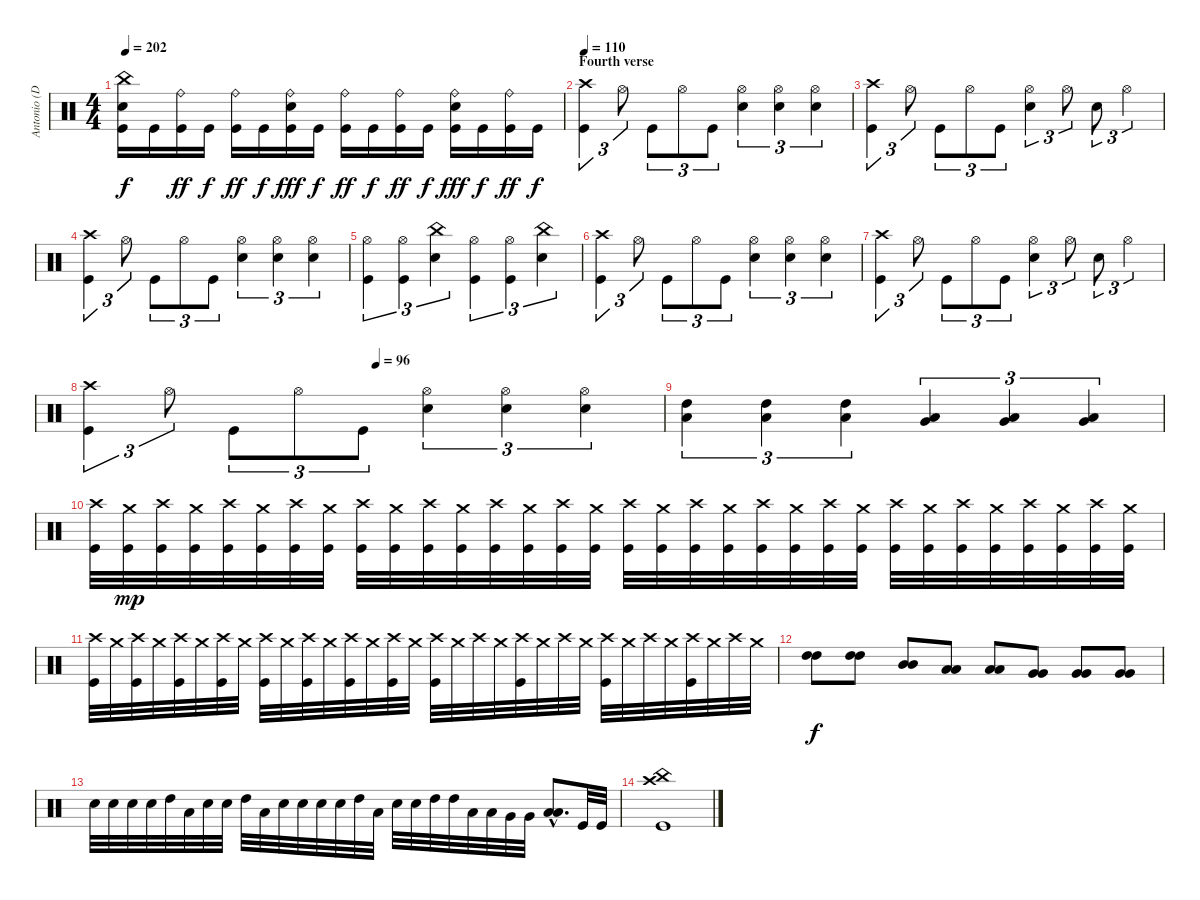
\track ("Antonio (Drums)" "Antonio (D") {instrument percussion}
\staff {score}
\articulation defaults
\ts (4 4)
\tempo 202
\clef neutral
\ks c
("China (hit)" "Electric Snare (hit)" "Kick (hit)").16{dy f} "Kick (hit)".16 ("Ride (bell)" "Kick (hit)").16{dy ff} "Kick (hit)".16{dy f} ("Ride (bell)" "Kick (hit)").16{dy ff} "Kick (hit)".16{dy f} ("Ride (bell)" "Electric Snare (hit)" "Kick (hit)").16{dy fff} "Kick (hit)".16{dy f} ("Ride (bell)" "Kick (hit)").16{dy ff} "Kick (hit)".16{dy f} ("Ride (bell)" "Kick (hit)").16{dy ff} "Kick (hit)".16{dy f} ("Ride (bell)" "Electric Snare (hit)" "Kick (hit)").16{dy fff} "Kick (hit)".16{dy f} ("Ride (bell)" "Kick (hit)").16{dy ff} "Kick (hit)".16{dy f} |
\section ("" "Fourth verse")
\tempo 110
("Crash high (hit)" "Kick (hit)").4{tu (3 2)} "Hi-Hat (open)".8{tu (3 2)} "Kick (hit)".8{tu (3 2)} "Hi-Hat (open)".8{tu (3 2)} "Kick (hit)".8{tu (3 2)} ("Hi-Hat (open)" "Electric Snare (hit)").4{tu (3 2)} ("Hi-Hat (open)" "Electric Snare (hit)").4{tu (3 2)} ("Hi-Hat (open)" "Electric Snare (hit)").4{tu (3 2)} |
("Crash high (hit)" "Kick (hit)").4{tu (3 2)} "Hi-Hat (open)".8{tu (3 2)} "Kick (hit)".8{tu (3 2)} "Hi-Hat (open)".8{tu (3 2)} "Kick (hit)".8{tu (3 2)} ("Hi-Hat (open)" "Electric Snare (hit)").4{tu (3 2)} "Hi-Hat (open)".8{tu (3 2)} "Electric Snare (hit)".8{tu (3 2)} "Hi-Hat (open)".4{tu (3 2)} |
("Crash high (hit)" "Kick (hit)").4{tu (3 2)} "Hi-Hat (open)".8{tu (3 2)} "Kick (hit)".8{tu (3 2)} "Hi-Hat (open)".8{tu (3 2)} "Kick (hit)".8{tu (3 2)} ("Hi-Hat (open)" "Electric Snare (hit)").4{tu (3 2)} ("Hi-Hat (open)" "Electric Snare (hit)").4{tu (3 2)} ("Hi-Hat (open)" "Electric Snare (hit)").4{tu (3 2)} |
("Hi-Hat (open)" "Kick (hit)").4{tu (3 2)} ("Hi-Hat (open)" "Kick (hit)").4{tu (3 2)} ("China (hit)" "Electric Snare (hit)").4{tu (3 2)} ("Hi-Hat (open)" "Kick (hit)").4{tu (3 2)} ("Hi-Hat (open)" "Kick (hit)").4{tu (3 2)} ("China (hit)" "Electric Snare (hit)").4{tu (3 2)} |
("Crash high (hit)" "Kick (hit)").4{tu (3 2)} "Hi-Hat (open)".8{tu (3 2)} "Kick (hit)".8{tu (3 2)} "Hi-Hat (open)".8{tu (3 2)} "Kick (hit)".8{tu (3 2)} ("Hi-Hat (open)" "Electric Snare (hit)").4{tu (3 2)} ("Hi-Hat (open)" "Electric Snare (hit)").4{tu (3 2)} ("Hi-Hat (open)" "Electric Snare (hit)").4{tu (3 2)} |
("Crash high (hit)" "Kick (hit)").4{tu (3 2)} "Hi-Hat (open)".8{tu (3 2)} "Kick (hit)".8{tu (3 2)} "Hi-Hat (open)".8{tu (3 2)} "Kick (hit)".8{tu (3 2)} ("Hi-Hat (open)" "Electric Snare (hit)").4{tu (3 2)} "Hi-Hat (open)".8{tu (3 2)} "Electric Snare (hit)".8{tu (3 2)} "Hi-Hat (open)".4{tu (3 2)} |
\tempo (96 0.5)
("Crash high (hit)" "Kick (hit)").4{tu (3 2)} "Hi-Hat (open)".8{tu (3 2)} "Kick (hit)".8{tu (3 2)} "Hi-Hat (open)".8{tu (3 2)} "Kick (hit)".8{tu (3 2)} ("Hi-Hat (open)" "Electric Snare (hit)").4{tu (3 2)} ("Hi-Hat (open)" "Electric Snare (hit)").4{tu (3 2)} ("Hi-Hat (open)" "Electric Snare (hit)").4{tu (3 2)} |
("High Tom (hit)" "Low Tom (hit)").4{tu (3 2) bu 120} ("High Tom (hit)" "Low Tom (hit)").4{tu (3 2) bu 120} ("High Tom (hit)" "Low Tom (hit)").4{tu (3 2) bu 120} ("Low Tom (hit)" "Very Low Tom (hit)").4{tu (3 2) bu 120} ("Low Tom (hit)" "Very Low Tom (hit)").4{tu (3 2) bu 120} ("Low Tom (hit)" "Very Low Tom (hit)").4{tu (3 2) bu 120} |
("Crash high (hit)" "Kick (hit)").32 ("Crash medium (hit)" "Kick (hit)").32{dy mp} ("Crash high (hit)" "Kick (hit)").32 ("Crash medium (hit)" "Kick (hit)").32 ("Crash high (hit)" "Kick (hit)").32 ("Crash medium (hit)" "Kick (hit)").32 ("Crash high (hit)" "Kick (hit)").32 ("Crash medium (hit)" "Kick (hit)").32 ("Crash high (hit)" "Kick (hit)").32 ("Crash medium (hit)" "Kick (hit)").32 ("Crash high (hit)" "Kick (hit)").32 ("Crash medium (hit)" "Kick (hit)").32 ("Crash high (hit)" "Kick (hit)").32 ("Crash medium (hit)" "Kick (hit)").32 ("Crash high (hit)" "Kick (hit)").32 ("Crash medium (hit)" "Kick (hit)").32 ("Crash high (hit)" "Kick (hit)").32 ("Crash medium (hit)" "Kick (hit)").32 ("Crash high (hit)" "Kick (hit)").32 ("Crash medium (hit)" "Kick (hit)").32 ("Crash high (hit)" "Kick (hit)").32 ("Crash medium (hit)" "Kick (hit)").32 ("Crash high (hit)" "Kick (hit)").32 ("Crash medium (hit)" "Kick (hit)").32 ("Crash high (hit)" "Kick (hit)").32 ("Crash medium (hit)" "Kick (hit)").32 ("Crash high (hit)" "Kick (hit)").32 ("Crash medium (hit)" "Kick (hit)").32 ("Crash high (hit)" "Kick (hit)").32 ("Crash medium (hit)" "Kick (hit)").32 ("Crash high (hit)" "Kick (hit)").32 ("Crash medium (hit)" "Kick (hit)").32 |
("Crash high (hit)" "Kick (hit)").32 "Crash medium (hit)".32 ("Crash high (hit)" "Kick (hit)").32 "Crash medium (hit)".32 ("Crash high (hit)" "Kick (hit)").32 "Crash medium (hit)".32 ("Crash high (hit)" "Kick (hit)").32 "Crash medium (hit)".32 ("Crash high (hit)" "Kick (hit)").32 "Crash medium (hit)".32 ("Crash high (hit)" "Kick (hit)").32 "Crash medium (hit)".32 ("Crash high (hit)" "Kick (hit)").32 "Crash medium (hit)".32 ("Crash high (hit)" "Kick (hit)").32 "Crash medium (hit)".32 ("Crash high (hit)" "Kick (hit)").32 "Crash medium (hit)".32 "Crash high (hit)".32 "Crash medium (hit)".32 ("Crash high (hit)" "Kick (hit)").32 "Crash medium (hit)".32 "Crash high (hit)".32 "Crash medium (hit)".32 ("Crash high (hit)" "Kick (hit)").32 "Crash medium (hit)".32 "Crash high (hit)".32 "Crash medium (hit)".32 ("Crash high (hit)" "Kick (hit)").32 "Crash medium (hit)".32 "Crash high (hit)".32 "Crash medium (hit)".32 |
("High Tom (hit)" "High Tom (hit)").8{bu 120 dy f} ("High Tom (hit)" "High Tom (hit)").8{bu 120} ("Mid Tom (hit)" "Mid Tom (hit)").8{bu 120} ("Low Tom (hit)" "Low Tom (hit)").8{bu 120} ("Low Tom (hit)" "Low Tom (hit)").8{bu 120} ("Very Low Tom (hit)" "Very Low Tom (hit)").8{bu 120} ("Very Low Tom (hit)" "Very Low Tom (hit)").8{bu 120} ("Very Low Tom (hit)" "Very Low Tom (hit)").8{bu 120} |
"Electric Snare (hit)".32 "Electric Snare (hit)".32 "Electric Snare (hit)".32 "Electric Snare (hit)".32 "High Tom (hit)".32 "Low Tom (hit)".32 "Electric Snare (hit)".32 "Electric Snare (hit)".32 "High Tom (hit)".32 "Low Tom (hit)".32 "Electric Snare (hit)".32 "Electric Snare (hit)".32 "Electric Snare (hit)".32 "Electric Snare (hit)".32 "High Tom (hit)".32 "Low Tom (hit)".32 "Electric Snare (hit)".32 "Electric Snare (hit)".32 "High Tom (hit)".32 "High Tom (hit)".32 "Low Tom (hit)".32 "Low Tom (hit)".32 "Very Low Tom (hit)".32 "Very Low Tom (hit)".32 ("Low Floor Tom (hit)"{hac} "Low Floor Tom (hit)"{hac}).8{d bu 120} "Kick (hit)".32 "Kick (hit)".32 |
("Crash high (hit)" "China (hit)" "Kick (hit)").1
